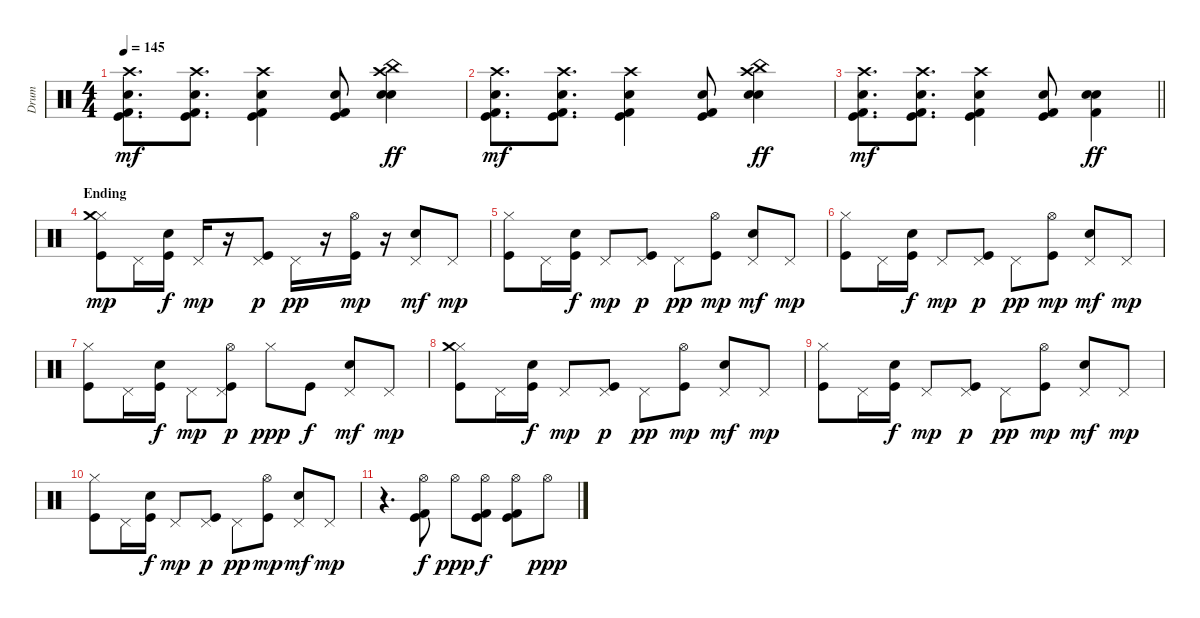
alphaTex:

\track ("Drum" "Drum") {instrument percussion}
\staff {score}
\articulation defaults
\ts (4 4)
\tempo 145
\clef neutral
\ks c
("Crash high (hit)" "Electric Snare (hit)" "Kick (hit) 2" "Kick (hit)").8{d dy mf} ("Crash high (hit)" "Electric Snare (hit)" "Kick (hit) 2" "Kick (hit)").8{d} ("Crash high (hit)" "Electric Snare (hit)" "Kick (hit) 2" "Kick (hit)").4 ("Electric Snare (hit)" "Kick (hit) 2" "Kick (hit)").8 ("Snare (hit) 2" "Electric Snare (hit)" "China (hit)" "Crash high (hit)").4{dy ff} |
("Crash high (hit)" "Electric Snare (hit)" "Kick (hit) 2" "Kick (hit)").8{d dy mf} ("Crash high (hit)" "Electric Snare (hit)" "Kick (hit) 2" "Kick (hit)").8{d} ("Crash high (hit)" "Electric Snare (hit)" "Kick (hit) 2" "Kick (hit)").4 ("Electric Snare (hit)" "Kick (hit) 2" "Kick (hit)").8 ("Snare (hit) 2" "Electric Snare (hit)" "China (hit)" "Crash high (hit)").4{dy ff} |
\barLineRight lightlight
("Crash high (hit)" "Electric Snare (hit)" "Kick (hit) 2" "Kick (hit)").8{d dy mf} ("Crash high (hit)" "Electric Snare (hit)" "Kick (hit) 2" "Kick (hit)").8{d} ("Crash high (hit)" "Electric Snare (hit)" "Kick (hit) 2" "Kick (hit)").4 ("Electric Snare (hit)" "Kick (hit) 2" "Kick (hit)").8 ("Snare (hit) 2" "Electric Snare (hit)" "Kick (hit) 2").4{dy ff} |
\section ("" "Ending")
("Hi-Hat (closed)" "Crash medium (hit)" "Kick (hit)").8{dy mp} "Pedal Hi-Hat (hit)".16 ("Electric Snare (hit)" "Kick (hit)").16{dy f} "Pedal Hi-Hat (hit)".16{dy mp} r.16 ("Pedal Hi-Hat (hit)" "Kick (hit)").8{dy p} "Pedal Hi-Hat (hit)".16{dy pp} r.16 ("Hi-Hat (open)" "Kick (hit)").16{dy mp} r.16 ("Pedal Hi-Hat (hit)" "Electric Snare (hit)").8{dy mf} "Pedal Hi-Hat (hit)".8{dy mp} |
("Hi-Hat (closed)" "Kick (hit)").8 "Pedal Hi-Hat (hit)".16 ("Electric Snare (hit)" "Kick (hit)").16{dy f} "Pedal Hi-Hat (hit)".8{dy mp} ("Pedal Hi-Hat (hit)" "Kick (hit)").8{dy p} "Pedal Hi-Hat (hit)".8{dy pp} ("Hi-Hat (open)" "Kick (hit)").8{dy mp} ("Pedal Hi-Hat (hit)" "Electric Snare (hit)").8{dy mf} "Pedal Hi-Hat (hit)".8{dy mp} |
("Hi-Hat (closed)" "Kick (hit)").8 "Pedal Hi-Hat (hit)".16 ("Electric Snare (hit)" "Kick (hit)").16{dy f} "Pedal Hi-Hat (hit)".8{dy mp} ("Pedal Hi-Hat (hit)" "Kick (hit)").8{dy p} "Pedal Hi-Hat (hit)".8{dy pp} ("Hi-Hat (open)" "Kick (hit)").8{dy mp} ("Pedal Hi-Hat (hit)" "Electric Snare (hit)").8{dy mf} "Pedal Hi-Hat (hit)".8{dy mp} |
("Hi-Hat (closed)" "Kick (hit)").8 "Pedal Hi-Hat (hit)".16 ("Electric Snare (hit)" "Kick (hit)").16{dy f} "Pedal Hi-Hat (hit)".8{dy mp} ("Pedal Hi-Hat (hit)" "Hi-Hat (open)" "Kick (hit)").8{dy p} "Hi-Hat (closed)".8{dy ppp} "Kick (hit)".8{dy f} ("Pedal Hi-Hat (hit)" "Electric Snare (hit)").8{dy mf} "Pedal Hi-Hat (hit)".8{dy mp} |
("Hi-Hat (closed)" "Crash medium (hit)" "Kick (hit)").8 "Pedal Hi-Hat (hit)".16 ("Electric Snare (hit)" "Kick (hit)").16{dy f} "Pedal Hi-Hat (hit)".8{dy mp} ("Pedal Hi-Hat (hit)" "Kick (hit)").8{dy p} "Pedal Hi-Hat (hit)".8{dy pp} ("Hi-Hat (open)" "Kick (hit)").8{dy mp} ("Pedal Hi-Hat (hit)" "Electric Snare (hit)").8{dy mf} "Pedal Hi-Hat (hit)".8{dy mp} |
("Hi-Hat (closed)" "Kick (hit)").8 "Pedal Hi-Hat (hit)".16 ("Electric Snare (hit)" "Kick (hit)").16{dy f} "Pedal Hi-Hat (hit)".8{dy mp} ("Pedal Hi-Hat (hit)" "Kick (hit)").8{dy p} "Pedal Hi-Hat (hit)".8{dy pp} ("Hi-Hat (open)" "Kick (hit)").8{dy mp} ("Pedal Hi-Hat (hit)" "Electric Snare (hit)").8{dy mf} "Pedal Hi-Hat (hit)".8{dy mp} |
("Hi-Hat (closed)" "Kick (hit)").8 "Pedal Hi-Hat (hit)".16 ("Electric Snare (hit)" "Kick (hit)").16{dy f} "Pedal Hi-Hat (hit)".8{dy mp} ("Pedal Hi-Hat (hit)" "Kick (hit)").8{dy p} "Pedal Hi-Hat (hit)".8{dy pp} ("Hi-Hat (open)" "Kick (hit)").8{dy mp} ("Pedal Hi-Hat (hit)" "Electric Snare (hit)").8{dy mf} "Pedal Hi-Hat (hit)".8{dy mp} |
r.4{d} ("Hi-Hat (open)" "Kick (hit) 2" "Kick (hit)").8{dy f} "Hi-Hat (open)".8{dy ppp} ("Hi-Hat (open)" "Kick (hit) 2" "Kick (hit)").8{dy f} ("Hi-Hat (open)" "Kick (hit) 2" "Kick (hit)").8 "Hi-Hat (open)".8{dy ppp}
